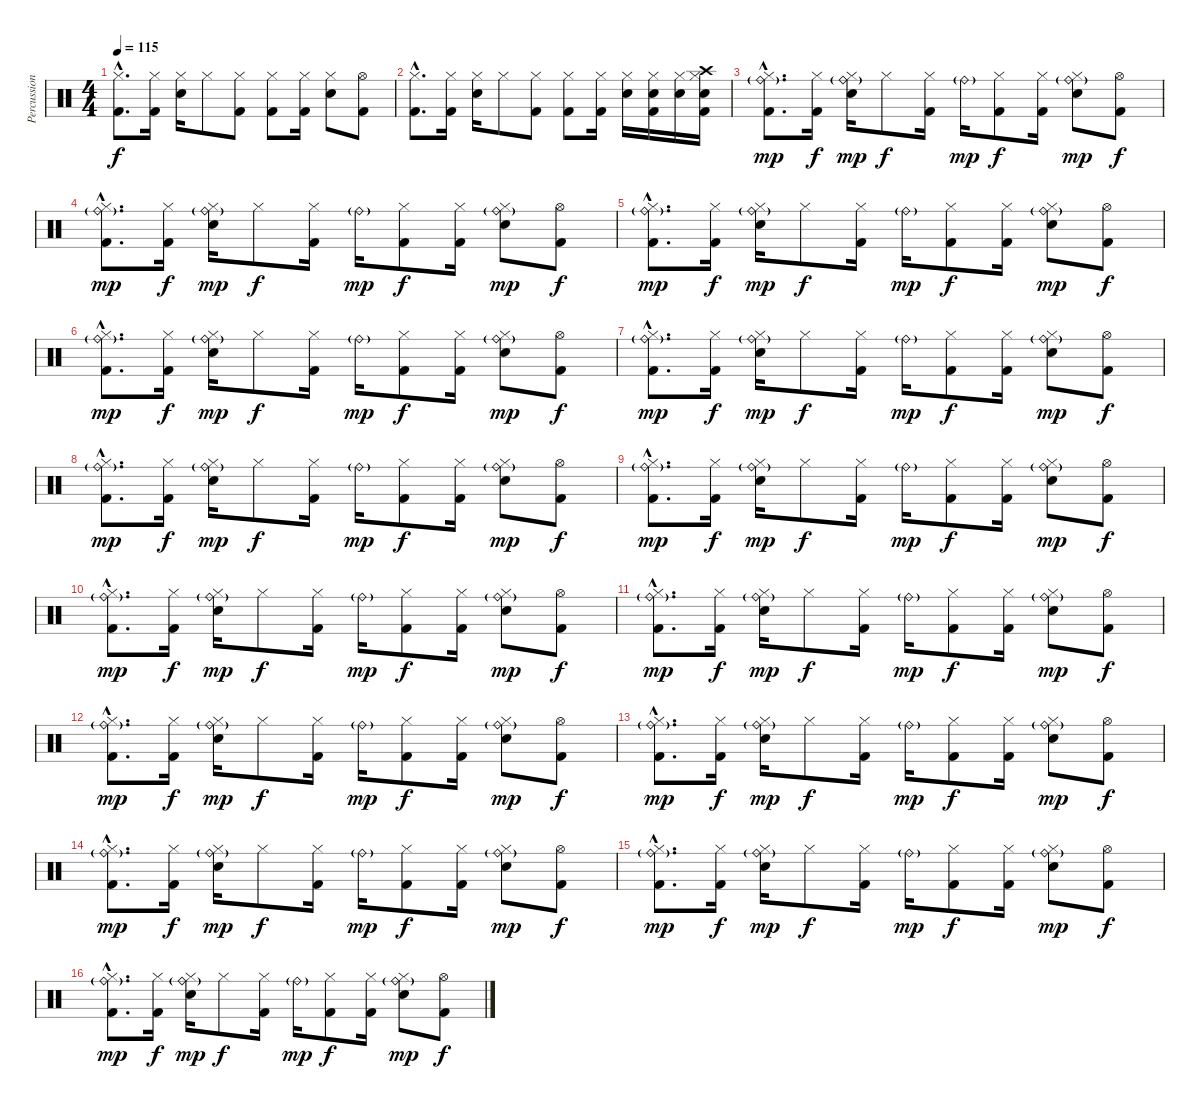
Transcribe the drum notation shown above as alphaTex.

\track ("Percussions" "Percussion") {instrument percussion}
\staff {score}
\articulation defaults
\ts (4 4)
\tempo 115
\clef neutral
\ks c
("Kick (hit) 2"{hac} "Hi-Hat (closed)"{hac}).8{d dy f} ("Kick (hit) 2" "Hi-Hat (closed)").16 ("Hi-Hat (closed)" "Snare (hit) 2").16 "Hi-Hat (closed)".8 ("Kick (hit) 2" "Hi-Hat (closed)").8 ("Kick (hit) 2" "Hi-Hat (closed)").8 ("Kick (hit) 2" "Hi-Hat (closed)").16 ("Hi-Hat (closed)" "Snare (hit) 2").8 ("Kick (hit) 2" "Hi-Hat (open)").8 |
("Kick (hit) 2"{hac} "Hi-Hat (closed)"{hac}).8{d} ("Kick (hit) 2" "Hi-Hat (closed)").16 ("Hi-Hat (closed)" "Snare (hit) 2").16 "Hi-Hat (closed)".8 ("Kick (hit) 2" "Hi-Hat (closed)").8 ("Kick (hit) 2" "Hi-Hat (closed)").8 ("Kick (hit) 2" "Hi-Hat (closed)").16 ("Hi-Hat (closed)" "Snare (hit) 2").16 ("Kick (hit) 2" "Hi-Hat (closed)" "Snare (hit) 2").16 ("Hi-Hat (closed)" "Snare (hit) 2").16 ("Kick (hit) 2" "Hi-Hat (closed)" "Snare (hit) 2" "Crash high (hit)").16 |
\section ("" "")
("Kick (hit) 2"{hac} "Hi-Hat (closed)"{hac} "Ride (bell)"{g hac}).8{d dy mp} ("Kick (hit) 2" "Hi-Hat (closed)").16{dy f} ("Hi-Hat (closed)" "Snare (hit) 2" "Ride (bell)"{g}).16{dy mp} "Hi-Hat (closed)".8{dy f} ("Kick (hit) 2" "Hi-Hat (closed)").16 "Ride (bell)"{g}.16{dy mp} ("Kick (hit) 2" "Hi-Hat (closed)").8{dy f} ("Kick (hit) 2" "Hi-Hat (closed)").16 ("Hi-Hat (closed)" "Snare (hit) 2" "Ride (bell)"{g}).8{dy mp} ("Kick (hit) 2" "Hi-Hat (open)").8{dy f} |
("Kick (hit) 2"{hac} "Hi-Hat (closed)"{hac} "Ride (bell)"{g hac}).8{d dy mp} ("Kick (hit) 2" "Hi-Hat (closed)").16{dy f} ("Hi-Hat (closed)" "Snare (hit) 2" "Ride (bell)"{g}).16{dy mp} "Hi-Hat (closed)".8{dy f} ("Kick (hit) 2" "Hi-Hat (closed)").16 "Ride (bell)"{g}.16{dy mp} ("Kick (hit) 2" "Hi-Hat (closed)").8{dy f} ("Kick (hit) 2" "Hi-Hat (closed)").16 ("Hi-Hat (closed)" "Snare (hit) 2" "Ride (bell)"{g}).8{dy mp} ("Kick (hit) 2" "Hi-Hat (open)").8{dy f} |
("Kick (hit) 2"{hac} "Hi-Hat (closed)"{hac} "Ride (bell)"{g hac}).8{d dy mp} ("Kick (hit) 2" "Hi-Hat (closed)").16{dy f} ("Hi-Hat (closed)" "Snare (hit) 2" "Ride (bell)"{g}).16{dy mp} "Hi-Hat (closed)".8{dy f} ("Kick (hit) 2" "Hi-Hat (closed)").16 "Ride (bell)"{g}.16{dy mp} ("Kick (hit) 2" "Hi-Hat (closed)").8{dy f} ("Kick (hit) 2" "Hi-Hat (closed)").16 ("Hi-Hat (closed)" "Snare (hit) 2" "Ride (bell)"{g}).8{dy mp} ("Kick (hit) 2" "Hi-Hat (open)").8{dy f} |
("Kick (hit) 2"{hac} "Hi-Hat (closed)"{hac} "Ride (bell)"{g hac}).8{d dy mp} ("Kick (hit) 2" "Hi-Hat (closed)").16{dy f} ("Hi-Hat (closed)" "Snare (hit) 2" "Ride (bell)"{g}).16{dy mp} "Hi-Hat (closed)".8{dy f} ("Kick (hit) 2" "Hi-Hat (closed)").16 "Ride (bell)"{g}.16{dy mp} ("Kick (hit) 2" "Hi-Hat (closed)").8{dy f} ("Kick (hit) 2" "Hi-Hat (closed)").16 ("Hi-Hat (closed)" "Snare (hit) 2" "Ride (bell)"{g}).8{dy mp} ("Kick (hit) 2" "Hi-Hat (open)").8{dy f} |
("Kick (hit) 2"{hac} "Hi-Hat (closed)"{hac} "Ride (bell)"{g hac}).8{d dy mp} ("Kick (hit) 2" "Hi-Hat (closed)").16{dy f} ("Hi-Hat (closed)" "Snare (hit) 2" "Ride (bell)"{g}).16{dy mp} "Hi-Hat (closed)".8{dy f} ("Kick (hit) 2" "Hi-Hat (closed)").16 "Ride (bell)"{g}.16{dy mp} ("Kick (hit) 2" "Hi-Hat (closed)").8{dy f} ("Kick (hit) 2" "Hi-Hat (closed)").16 ("Hi-Hat (closed)" "Snare (hit) 2" "Ride (bell)"{g}).8{dy mp} ("Kick (hit) 2" "Hi-Hat (open)").8{dy f} |
("Kick (hit) 2"{hac} "Hi-Hat (closed)"{hac} "Ride (bell)"{g hac}).8{d dy mp} ("Kick (hit) 2" "Hi-Hat (closed)").16{dy f} ("Hi-Hat (closed)" "Snare (hit) 2" "Ride (bell)"{g}).16{dy mp} "Hi-Hat (closed)".8{dy f} ("Kick (hit) 2" "Hi-Hat (closed)").16 "Ride (bell)"{g}.16{dy mp} ("Kick (hit) 2" "Hi-Hat (closed)").8{dy f} ("Kick (hit) 2" "Hi-Hat (closed)").16 ("Hi-Hat (closed)" "Snare (hit) 2" "Ride (bell)"{g}).8{dy mp} ("Kick (hit) 2" "Hi-Hat (open)").8{dy f} |
("Kick (hit) 2"{hac} "Hi-Hat (closed)"{hac} "Ride (bell)"{g hac}).8{d dy mp} ("Kick (hit) 2" "Hi-Hat (closed)").16{dy f} ("Hi-Hat (closed)" "Snare (hit) 2" "Ride (bell)"{g}).16{dy mp} "Hi-Hat (closed)".8{dy f} ("Kick (hit) 2" "Hi-Hat (closed)").16 "Ride (bell)"{g}.16{dy mp} ("Kick (hit) 2" "Hi-Hat (closed)").8{dy f} ("Kick (hit) 2" "Hi-Hat (closed)").16 ("Hi-Hat (closed)" "Snare (hit) 2" "Ride (bell)"{g}).8{dy mp} ("Kick (hit) 2" "Hi-Hat (open)").8{dy f} |
("Kick (hit) 2"{hac} "Hi-Hat (closed)"{hac} "Ride (bell)"{g hac}).8{d dy mp} ("Kick (hit) 2" "Hi-Hat (closed)").16{dy f} ("Hi-Hat (closed)" "Snare (hit) 2" "Ride (bell)"{g}).16{dy mp} "Hi-Hat (closed)".8{dy f} ("Kick (hit) 2" "Hi-Hat (closed)").16 "Ride (bell)"{g}.16{dy mp} ("Kick (hit) 2" "Hi-Hat (closed)").8{dy f} ("Kick (hit) 2" "Hi-Hat (closed)").16 ("Hi-Hat (closed)" "Snare (hit) 2" "Ride (bell)"{g}).8{dy mp} ("Kick (hit) 2" "Hi-Hat (open)").8{dy f} |
\section ("" "")
("Kick (hit) 2"{hac} "Hi-Hat (closed)"{hac} "Ride (bell)"{g hac}).8{d dy mp} ("Kick (hit) 2" "Hi-Hat (closed)").16{dy f} ("Hi-Hat (closed)" "Snare (hit) 2" "Ride (bell)"{g}).16{dy mp} "Hi-Hat (closed)".8{dy f} ("Kick (hit) 2" "Hi-Hat (closed)").16 "Ride (bell)"{g}.16{dy mp} ("Kick (hit) 2" "Hi-Hat (closed)").8{dy f} ("Kick (hit) 2" "Hi-Hat (closed)").16 ("Hi-Hat (closed)" "Snare (hit) 2" "Ride (bell)"{g}).8{dy mp} ("Kick (hit) 2" "Hi-Hat (open)").8{dy f} |
("Kick (hit) 2"{hac} "Hi-Hat (closed)"{hac} "Ride (bell)"{g hac}).8{d dy mp} ("Kick (hit) 2" "Hi-Hat (closed)").16{dy f} ("Hi-Hat (closed)" "Snare (hit) 2" "Ride (bell)"{g}).16{dy mp} "Hi-Hat (closed)".8{dy f} ("Kick (hit) 2" "Hi-Hat (closed)").16 "Ride (bell)"{g}.16{dy mp} ("Kick (hit) 2" "Hi-Hat (closed)").8{dy f} ("Kick (hit) 2" "Hi-Hat (closed)").16 ("Hi-Hat (closed)" "Snare (hit) 2" "Ride (bell)"{g}).8{dy mp} ("Kick (hit) 2" "Hi-Hat (open)").8{dy f} |
("Kick (hit) 2"{hac} "Hi-Hat (closed)"{hac} "Ride (bell)"{g hac}).8{d dy mp} ("Kick (hit) 2" "Hi-Hat (closed)").16{dy f} ("Hi-Hat (closed)" "Snare (hit) 2" "Ride (bell)"{g}).16{dy mp} "Hi-Hat (closed)".8{dy f} ("Kick (hit) 2" "Hi-Hat (closed)").16 "Ride (bell)"{g}.16{dy mp} ("Kick (hit) 2" "Hi-Hat (closed)").8{dy f} ("Kick (hit) 2" "Hi-Hat (closed)").16 ("Hi-Hat (closed)" "Snare (hit) 2" "Ride (bell)"{g}).8{dy mp} ("Kick (hit) 2" "Hi-Hat (open)").8{dy f} |
("Kick (hit) 2"{hac} "Hi-Hat (closed)"{hac} "Ride (bell)"{g hac}).8{d dy mp} ("Kick (hit) 2" "Hi-Hat (closed)").16{dy f} ("Hi-Hat (closed)" "Snare (hit) 2" "Ride (bell)"{g}).16{dy mp} "Hi-Hat (closed)".8{dy f} ("Kick (hit) 2" "Hi-Hat (closed)").16 "Ride (bell)"{g}.16{dy mp} ("Kick (hit) 2" "Hi-Hat (closed)").8{dy f} ("Kick (hit) 2" "Hi-Hat (closed)").16 ("Hi-Hat (closed)" "Snare (hit) 2" "Ride (bell)"{g}).8{dy mp} ("Kick (hit) 2" "Hi-Hat (open)").8{dy f} |
("Kick (hit) 2"{hac} "Hi-Hat (closed)"{hac} "Ride (bell)"{g hac}).8{d dy mp} ("Kick (hit) 2" "Hi-Hat (closed)").16{dy f} ("Hi-Hat (closed)" "Snare (hit) 2" "Ride (bell)"{g}).16{dy mp} "Hi-Hat (closed)".8{dy f} ("Kick (hit) 2" "Hi-Hat (closed)").16 "Ride (bell)"{g}.16{dy mp} ("Kick (hit) 2" "Hi-Hat (closed)").8{dy f} ("Kick (hit) 2" "Hi-Hat (closed)").16 ("Hi-Hat (closed)" "Snare (hit) 2" "Ride (bell)"{g}).8{dy mp} ("Kick (hit) 2" "Hi-Hat (open)").8{dy f} |
("Kick (hit) 2"{hac} "Hi-Hat (closed)"{hac} "Ride (bell)"{g hac}).8{d dy mp} ("Kick (hit) 2" "Hi-Hat (closed)").16{dy f} ("Hi-Hat (closed)" "Snare (hit) 2" "Ride (bell)"{g}).16{dy mp} "Hi-Hat (closed)".8{dy f} ("Kick (hit) 2" "Hi-Hat (closed)").16 "Ride (bell)"{g}.16{dy mp} ("Kick (hit) 2" "Hi-Hat (closed)").8{dy f} ("Kick (hit) 2" "Hi-Hat (closed)").16 ("Hi-Hat (closed)" "Snare (hit) 2" "Ride (bell)"{g}).8{dy mp} ("Kick (hit) 2" "Hi-Hat (open)").8{dy f}
